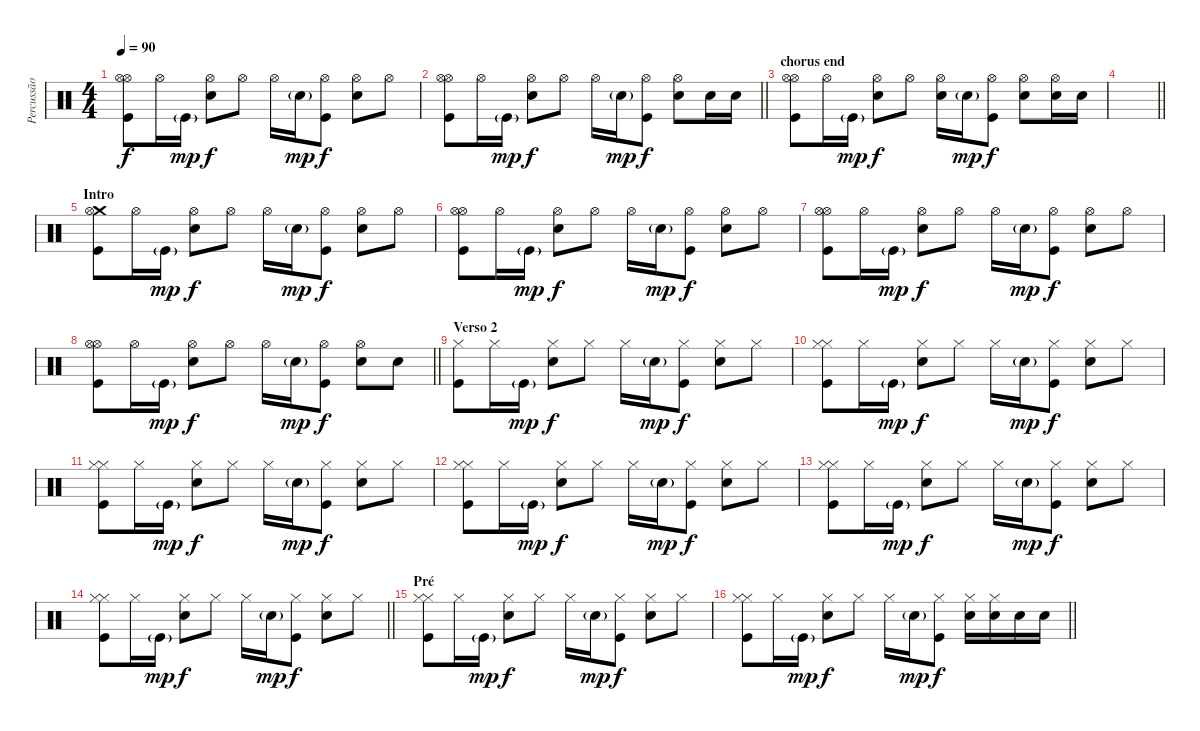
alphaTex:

\track ("Percussão" "Percussão") {instrument percussion}
\staff {score}
\articulation defaults
\ts (4 4)
\tempo 90
\clef neutral
\ks c
("Hi-Hat (open)" "Kick (hit)" "Hi-Hat (open)").8{dy f} "Hi-Hat (open)".16 "Kick (hit)"{g}.16{dy mp} ("Snare (hit) 2" "Hi-Hat (open)").8{dy f} "Hi-Hat (open)".8 "Hi-Hat (open)".16 "Snare (hit) 2"{g}.16{dy mp} ("Hi-Hat (open)" "Kick (hit)").8{dy f} ("Hi-Hat (open)" "Snare (hit) 2").8 "Hi-Hat (open)".8 |
\barLineRight lightlight
("Hi-Hat (open)" "Kick (hit)" "Hi-Hat (open)").8 "Hi-Hat (open)".16 "Kick (hit)"{g}.16{dy mp} ("Snare (hit) 2" "Hi-Hat (open)").8{dy f} "Hi-Hat (open)".8 "Hi-Hat (open)".16 "Snare (hit) 2"{g}.16{dy mp} ("Hi-Hat (open)" "Kick (hit)").8{dy f} ("Hi-Hat (open)" "Snare (hit) 2").8 "Snare (hit) 2".16 "Snare (hit) 2".16 |
\section ("" "chorus end")
("Hi-Hat (open)" "Kick (hit)" "Hi-Hat (open)").8 "Hi-Hat (open)".16 "Kick (hit)"{g}.16{dy mp} ("Snare (hit) 2" "Hi-Hat (open)").8{dy f} "Hi-Hat (open)".8 ("Hi-Hat (open)" "Snare (hit) 2").16 "Snare (hit) 2"{g}.16{dy mp} ("Hi-Hat (open)" "Kick (hit)").8{dy f} ("Hi-Hat (open)" "Snare (hit) 2").8 ("Snare (hit) 2" "Hi-Hat (open)").16 "Snare (hit) 2".16 |
\barLineRight lightlight
|
\section ("" "Intro")
("Crash medium (hit)" "Kick (hit)" "Hi-Hat (open)").8 "Hi-Hat (open)".16 "Kick (hit)"{g}.16{dy mp} ("Snare (hit) 2" "Hi-Hat (open)").8{dy f} "Hi-Hat (open)".8 "Hi-Hat (open)".16 "Snare (hit) 2"{g}.16{dy mp} ("Hi-Hat (open)" "Kick (hit)").8{dy f} ("Hi-Hat (open)" "Snare (hit) 2").8 "Hi-Hat (open)".8 |
("Hi-Hat (open)" "Kick (hit)" "Hi-Hat (open)").8 "Hi-Hat (open)".16 "Kick (hit)"{g}.16{dy mp} ("Snare (hit) 2" "Hi-Hat (open)").8{dy f} "Hi-Hat (open)".8 "Hi-Hat (open)".16 "Snare (hit) 2"{g}.16{dy mp} ("Hi-Hat (open)" "Kick (hit)").8{dy f} ("Hi-Hat (open)" "Snare (hit) 2").8 "Hi-Hat (open)".8 |
("Hi-Hat (open)" "Kick (hit)" "Hi-Hat (open)").8 "Hi-Hat (open)".16 "Kick (hit)"{g}.16{dy mp} ("Snare (hit) 2" "Hi-Hat (open)").8{dy f} "Hi-Hat (open)".8 "Hi-Hat (open)".16 "Snare (hit) 2"{g}.16{dy mp} ("Hi-Hat (open)" "Kick (hit)").8{dy f} ("Hi-Hat (open)" "Snare (hit) 2").8 "Hi-Hat (open)".8 |
\barLineRight lightlight
("Hi-Hat (open)" "Kick (hit)" "Hi-Hat (open)").8 "Hi-Hat (open)".16 "Kick (hit)"{g}.16{dy mp} ("Snare (hit) 2" "Hi-Hat (open)").8{dy f} "Hi-Hat (open)".8 "Hi-Hat (open)".16 "Snare (hit) 2"{g}.16{dy mp} ("Hi-Hat (open)" "Kick (hit)").8{dy f} ("Hi-Hat (open)" "Snare (hit) 2").8 "Snare (hit) 2".8 |
\section ("" "Verso 2")
("Hi-Hat (closed)" "Kick (hit)").8 "Hi-Hat (closed)".16 "Kick (hit)"{g}.16{dy mp} ("Snare (hit) 2" "Hi-Hat (closed)").8{dy f} "Hi-Hat (closed)".8 "Hi-Hat (closed)".16 "Snare (hit) 2"{g}.16{dy mp} ("Hi-Hat (closed)" "Kick (hit)").8{dy f} ("Hi-Hat (closed)" "Snare (hit) 2").8 "Hi-Hat (closed)".8 |
("Hi-Hat (closed)" "Kick (hit)" "Hi-Hat (closed)").8 "Hi-Hat (closed)".16 "Kick (hit)"{g}.16{dy mp} ("Snare (hit) 2" "Hi-Hat (closed)").8{dy f} "Hi-Hat (closed)".8 "Hi-Hat (closed)".16 "Snare (hit) 2"{g}.16{dy mp} ("Hi-Hat (closed)" "Kick (hit)").8{dy f} ("Hi-Hat (closed)" "Snare (hit) 2").8 "Hi-Hat (closed)".8 |
("Hi-Hat (closed)" "Kick (hit)" "Hi-Hat (closed)").8 "Hi-Hat (closed)".16 "Kick (hit)"{g}.16{dy mp} ("Snare (hit) 2" "Hi-Hat (closed)").8{dy f} "Hi-Hat (closed)".8 "Hi-Hat (closed)".16 "Snare (hit) 2"{g}.16{dy mp} ("Hi-Hat (closed)" "Kick (hit)").8{dy f} ("Hi-Hat (closed)" "Snare (hit) 2").8 "Hi-Hat (closed)".8 |
("Hi-Hat (closed)" "Kick (hit)" "Hi-Hat (closed)").8 "Hi-Hat (closed)".16 "Kick (hit)"{g}.16{dy mp} ("Snare (hit) 2" "Hi-Hat (closed)").8{dy f} "Hi-Hat (closed)".8 "Hi-Hat (closed)".16 "Snare (hit) 2"{g}.16{dy mp} ("Hi-Hat (closed)" "Kick (hit)").8{dy f} ("Hi-Hat (closed)" "Snare (hit) 2").8 "Hi-Hat (closed)".8 |
("Hi-Hat (closed)" "Kick (hit)" "Hi-Hat (closed)").8 "Hi-Hat (closed)".16 "Kick (hit)"{g}.16{dy mp} ("Snare (hit) 2" "Hi-Hat (closed)").8{dy f} "Hi-Hat (closed)".8 "Hi-Hat (closed)".16 "Snare (hit) 2"{g}.16{dy mp} ("Hi-Hat (closed)" "Kick (hit)").8{dy f} ("Hi-Hat (closed)" "Snare (hit) 2").8 "Hi-Hat (closed)".8 |
\barLineRight lightlight
("Hi-Hat (closed)" "Kick (hit)" "Hi-Hat (closed)").8 "Hi-Hat (closed)".16 "Kick (hit)"{g}.16{dy mp} ("Snare (hit) 2" "Hi-Hat (closed)").8{dy f} "Hi-Hat (closed)".8 "Hi-Hat (closed)".16 "Snare (hit) 2"{g}.16{dy mp} ("Hi-Hat (closed)" "Kick (hit)").8{dy f} ("Hi-Hat (closed)" "Snare (hit) 2").8 "Hi-Hat (closed)".8 |
\section ("" "Pré")
("Hi-Hat (closed)" "Kick (hit)" "Hi-Hat (closed)").8 "Hi-Hat (closed)".16 "Kick (hit)"{g}.16{dy mp} ("Snare (hit) 2" "Hi-Hat (closed)").8{dy f} "Hi-Hat (closed)".8 "Hi-Hat (closed)".16 "Snare (hit) 2"{g}.16{dy mp} ("Hi-Hat (closed)" "Kick (hit)").8{dy f} ("Hi-Hat (closed)" "Snare (hit) 2").8 "Hi-Hat (closed)".8 |
\barLineRight lightlight
("Hi-Hat (closed)" "Kick (hit)" "Hi-Hat (closed)").8 "Hi-Hat (closed)".16 "Kick (hit)"{g}.16{dy mp} ("Snare (hit) 2" "Hi-Hat (closed)").8{dy f} "Hi-Hat (closed)".8 "Hi-Hat (closed)".16 "Snare (hit) 2"{g}.16{dy mp} ("Hi-Hat (closed)" "Kick (hit)").8{dy f} ("Hi-Hat (closed)" "Snare (hit) 2").16 ("Hi-Hat (closed)" "Snare (hit) 2").16 "Snare (hit) 2".16 "Snare (hit) 2".16
